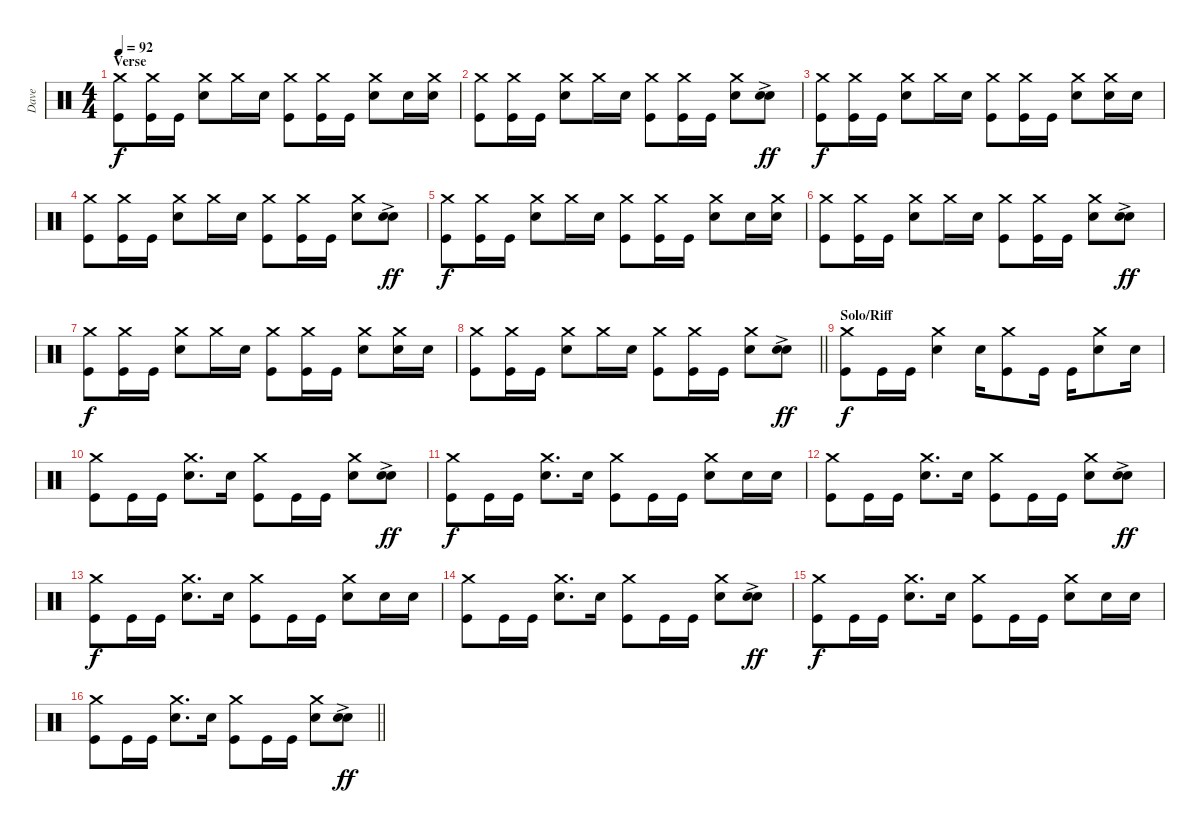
\track ("Dave" "Dave") {instrument percussion}
\staff {score}
\articulation defaults
\ts (4 4)
\section ("" "Verse")
\tempo 92
\clef neutral
\ks c
("Crash medium (hit)" "Kick (hit)").8{dy f} ("Crash medium (hit)" "Kick (hit)").16 "Kick (hit)".16 ("Crash medium (hit)" "Electric Snare (hit)").8 "Crash medium (hit)".16 "Electric Snare (hit)".16 ("Crash medium (hit)" "Kick (hit)").8 ("Crash medium (hit)" "Kick (hit)").16 "Kick (hit)".16 ("Crash medium (hit)" "Electric Snare (hit)").8 "Electric Snare (hit)".16 ("Crash medium (hit)" "Electric Snare (hit)").16 |
("Crash medium (hit)" "Kick (hit)").8 ("Crash medium (hit)" "Kick (hit)").16 "Kick (hit)".16 ("Crash medium (hit)" "Electric Snare (hit)").8 "Crash medium (hit)".16 "Electric Snare (hit)".16 ("Crash medium (hit)" "Kick (hit)").8 ("Crash medium (hit)" "Kick (hit)").16 "Kick (hit)".16 ("Crash medium (hit)" "Electric Snare (hit)").8 ("Electric Snare (hit)"{ac} "Electric Snare (hit)"{ac}).8{dy ff} |
("Crash medium (hit)" "Kick (hit)").8{dy f} ("Crash medium (hit)" "Kick (hit)").16 "Kick (hit)".16 ("Crash medium (hit)" "Electric Snare (hit)").8 "Crash medium (hit)".16 "Electric Snare (hit)".16 ("Crash medium (hit)" "Kick (hit)").8 ("Crash medium (hit)" "Kick (hit)").16 "Kick (hit)".16 ("Crash medium (hit)" "Electric Snare (hit)").8 ("Crash medium (hit)" "Electric Snare (hit)").16 "Electric Snare (hit)".16 |
("Crash medium (hit)" "Kick (hit)").8 ("Crash medium (hit)" "Kick (hit)").16 "Kick (hit)".16 ("Crash medium (hit)" "Electric Snare (hit)").8 "Crash medium (hit)".16 "Electric Snare (hit)".16 ("Crash medium (hit)" "Kick (hit)").8 ("Crash medium (hit)" "Kick (hit)").16 "Kick (hit)".16 ("Crash medium (hit)" "Electric Snare (hit)").8 ("Electric Snare (hit)"{ac} "Electric Snare (hit)"{ac}).8{dy ff} |
("Crash medium (hit)" "Kick (hit)").8{dy f} ("Crash medium (hit)" "Kick (hit)").16 "Kick (hit)".16 ("Crash medium (hit)" "Electric Snare (hit)").8 "Crash medium (hit)".16 "Electric Snare (hit)".16 ("Crash medium (hit)" "Kick (hit)").8 ("Crash medium (hit)" "Kick (hit)").16 "Kick (hit)".16 ("Crash medium (hit)" "Electric Snare (hit)").8 "Electric Snare (hit)".16 ("Crash medium (hit)" "Electric Snare (hit)").16 |
("Crash medium (hit)" "Kick (hit)").8 ("Crash medium (hit)" "Kick (hit)").16 "Kick (hit)".16 ("Crash medium (hit)" "Electric Snare (hit)").8 "Crash medium (hit)".16 "Electric Snare (hit)".16 ("Crash medium (hit)" "Kick (hit)").8 ("Crash medium (hit)" "Kick (hit)").16 "Kick (hit)".16 ("Crash medium (hit)" "Electric Snare (hit)").8 ("Electric Snare (hit)"{ac} "Electric Snare (hit)"{ac}).8{dy ff} |
("Crash medium (hit)" "Kick (hit)").8{dy f} ("Crash medium (hit)" "Kick (hit)").16 "Kick (hit)".16 ("Crash medium (hit)" "Electric Snare (hit)").8 "Crash medium (hit)".16 "Electric Snare (hit)".16 ("Crash medium (hit)" "Kick (hit)").8 ("Crash medium (hit)" "Kick (hit)").16 "Kick (hit)".16 ("Crash medium (hit)" "Electric Snare (hit)").8 ("Crash medium (hit)" "Electric Snare (hit)").16 "Electric Snare (hit)".16 |
\barLineRight lightlight
("Crash medium (hit)" "Kick (hit)").8 ("Crash medium (hit)" "Kick (hit)").16 "Kick (hit)".16 ("Crash medium (hit)" "Electric Snare (hit)").8 "Crash medium (hit)".16 "Electric Snare (hit)".16 ("Crash medium (hit)" "Kick (hit)").8 ("Crash medium (hit)" "Kick (hit)").16 "Kick (hit)".16 ("Crash medium (hit)" "Electric Snare (hit)").8 ("Electric Snare (hit)"{ac} "Electric Snare (hit)"{ac}).8{dy ff} |
\section ("" "Solo/Riff")
("Crash medium (hit)" "Kick (hit)").8{dy f} "Kick (hit)".16 "Kick (hit)".16 ("Crash medium (hit)" "Electric Snare (hit)").4 "Electric Snare (hit)".16 ("Crash medium (hit)" "Kick (hit)").8 "Kick (hit)".16 "Kick (hit)".16 ("Crash medium (hit)" "Electric Snare (hit)").8 "Electric Snare (hit)".16 |
("Crash medium (hit)" "Kick (hit)").8 "Kick (hit)".16 "Kick (hit)".16 ("Crash medium (hit)" "Electric Snare (hit)").8{d} "Electric Snare (hit)".16 ("Crash medium (hit)" "Kick (hit)").8 "Kick (hit)".16 "Kick (hit)".16 ("Crash medium (hit)" "Electric Snare (hit)").8 ("Electric Snare (hit)"{ac} "Electric Snare (hit)"{ac}).8{dy ff} |
("Crash medium (hit)" "Kick (hit)").8{dy f} "Kick (hit)".16 "Kick (hit)".16 ("Crash medium (hit)" "Electric Snare (hit)").8{d} "Electric Snare (hit)".16 ("Crash medium (hit)" "Kick (hit)").8 "Kick (hit)".16 "Kick (hit)".16 ("Crash medium (hit)" "Electric Snare (hit)").8 "Electric Snare (hit)".16 "Electric Snare (hit)".16 |
("Crash medium (hit)" "Kick (hit)").8 "Kick (hit)".16 "Kick (hit)".16 ("Crash medium (hit)" "Electric Snare (hit)").8{d} "Electric Snare (hit)".16 ("Crash medium (hit)" "Kick (hit)").8 "Kick (hit)".16 "Kick (hit)".16 ("Crash medium (hit)" "Electric Snare (hit)").8 ("Electric Snare (hit)"{ac} "Electric Snare (hit)"{ac}).8{dy ff} |
("Crash medium (hit)" "Kick (hit)").8{dy f} "Kick (hit)".16 "Kick (hit)".16 ("Crash medium (hit)" "Electric Snare (hit)").8{d} "Electric Snare (hit)".16 ("Crash medium (hit)" "Kick (hit)").8 "Kick (hit)".16 "Kick (hit)".16 ("Crash medium (hit)" "Electric Snare (hit)").8 "Electric Snare (hit)".16 "Electric Snare (hit)".16 |
("Crash medium (hit)" "Kick (hit)").8 "Kick (hit)".16 "Kick (hit)".16 ("Crash medium (hit)" "Electric Snare (hit)").8{d} "Electric Snare (hit)".16 ("Crash medium (hit)" "Kick (hit)").8 "Kick (hit)".16 "Kick (hit)".16 ("Crash medium (hit)" "Electric Snare (hit)").8 ("Electric Snare (hit)"{ac} "Electric Snare (hit)"{ac}).8{dy ff} |
("Crash medium (hit)" "Kick (hit)").8{dy f} "Kick (hit)".16 "Kick (hit)".16 ("Crash medium (hit)" "Electric Snare (hit)").8{d} "Electric Snare (hit)".16 ("Crash medium (hit)" "Kick (hit)").8 "Kick (hit)".16 "Kick (hit)".16 ("Crash medium (hit)" "Electric Snare (hit)").8 "Electric Snare (hit)".16 "Electric Snare (hit)".16 |
\barLineRight lightlight
("Crash medium (hit)" "Kick (hit)").8 "Kick (hit)".16 "Kick (hit)".16 ("Crash medium (hit)" "Electric Snare (hit)").8{d} "Electric Snare (hit)".16 ("Crash medium (hit)" "Kick (hit)").8 "Kick (hit)".16 "Kick (hit)".16 ("Crash medium (hit)" "Electric Snare (hit)").8 ("Electric Snare (hit)"{ac} "Electric Snare (hit)"{ac}).8{dy ff}
